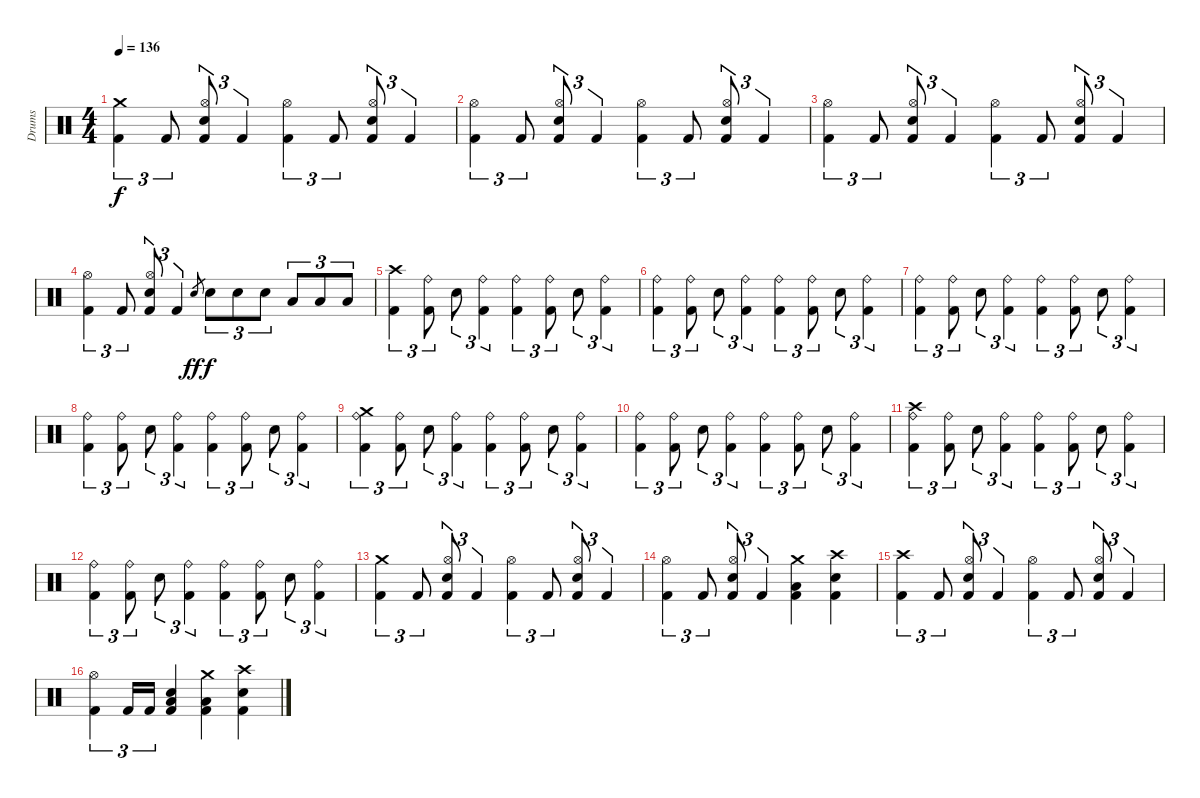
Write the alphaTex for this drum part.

\track ("Drums" "Drums") {instrument percussion}
\staff {score}
\articulation defaults
\ts (4 4)
\tempo 136
\clef neutral
\ks c
("Crash medium (hit)" "Kick (hit) 2").4{tu (3 2) dy f} "Kick (hit) 2".8{tu (3 2)} ("Hi-Hat (open)" "Electric Snare (hit)" "Kick (hit) 2").8{tu (3 2)} "Kick (hit) 2".4{tu (3 2)} ("Hi-Hat (open)" "Kick (hit) 2").4{tu (3 2)} "Kick (hit) 2".8{tu (3 2)} ("Hi-Hat (open)" "Electric Snare (hit)" "Kick (hit) 2").8{tu (3 2)} "Kick (hit) 2".4{tu (3 2)} |
("Hi-Hat (open)" "Kick (hit) 2").4{tu (3 2)} "Kick (hit) 2".8{tu (3 2)} ("Hi-Hat (open)" "Electric Snare (hit)" "Kick (hit) 2").8{tu (3 2)} "Kick (hit) 2".4{tu (3 2)} ("Hi-Hat (open)" "Kick (hit) 2").4{tu (3 2)} "Kick (hit) 2".8{tu (3 2)} ("Hi-Hat (open)" "Electric Snare (hit)" "Kick (hit) 2").8{tu (3 2)} "Kick (hit) 2".4{tu (3 2)} |
("Hi-Hat (open)" "Kick (hit) 2").4{tu (3 2)} "Kick (hit) 2".8{tu (3 2)} ("Hi-Hat (open)" "Electric Snare (hit)" "Kick (hit) 2").8{tu (3 2)} "Kick (hit) 2".4{tu (3 2)} ("Hi-Hat (open)" "Kick (hit) 2").4{tu (3 2)} "Kick (hit) 2".8{tu (3 2)} ("Hi-Hat (open)" "Electric Snare (hit)" "Kick (hit) 2").8{tu (3 2)} "Kick (hit) 2".4{tu (3 2)} |
("Hi-Hat (open)" "Kick (hit) 2").4{tu (3 2)} "Kick (hit) 2".8{tu (3 2)} ("Hi-Hat (open)" "Electric Snare (hit)" "Kick (hit) 2").8{tu (3 2)} "Kick (hit) 2".4{tu (3 2)} "Electric Snare (hit)".8{gr dy ff} "Electric Snare (hit)".8{tu (3 2) dy f} "Electric Snare (hit)".8{tu (3 2)} "Electric Snare (hit)".8{tu (3 2)} "Low Tom (hit)".8{tu (3 2)} "Low Tom (hit)".8{tu (3 2)} "Low Tom (hit)".8{tu (3 2)} |
("Crash high (hit)" "Kick (hit) 2").4{tu (3 2)} ("Ride (bell)" "Kick (hit) 2").8{tu (3 2)} "Electric Snare (hit)".8{tu (3 2)} ("Ride (bell)" "Kick (hit) 2").4{tu (3 2)} ("Ride (bell)" "Kick (hit) 2").4{tu (3 2)} ("Ride (bell)" "Kick (hit) 2").8{tu (3 2)} "Electric Snare (hit)".8{tu (3 2)} ("Ride (bell)" "Kick (hit) 2").4{tu (3 2)} |
("Ride (bell)" "Kick (hit) 2").4{tu (3 2)} ("Ride (bell)" "Kick (hit) 2").8{tu (3 2)} "Electric Snare (hit)".8{tu (3 2)} ("Ride (bell)" "Kick (hit) 2").4{tu (3 2)} ("Ride (bell)" "Kick (hit) 2").4{tu (3 2)} ("Ride (bell)" "Kick (hit) 2").8{tu (3 2)} "Electric Snare (hit)".8{tu (3 2)} ("Ride (bell)" "Kick (hit) 2").4{tu (3 2)} |
("Ride (bell)" "Kick (hit) 2").4{tu (3 2)} ("Ride (bell)" "Kick (hit) 2").8{tu (3 2)} "Electric Snare (hit)".8{tu (3 2)} ("Ride (bell)" "Kick (hit) 2").4{tu (3 2)} ("Ride (bell)" "Kick (hit) 2").4{tu (3 2)} ("Ride (bell)" "Kick (hit) 2").8{tu (3 2)} "Electric Snare (hit)".8{tu (3 2)} ("Ride (bell)" "Kick (hit) 2").4{tu (3 2)} |
("Ride (bell)" "Kick (hit) 2").4{tu (3 2)} ("Ride (bell)" "Kick (hit) 2").8{tu (3 2)} "Electric Snare (hit)".8{tu (3 2)} ("Ride (bell)" "Kick (hit) 2").4{tu (3 2)} ("Ride (bell)" "Kick (hit) 2").4{tu (3 2)} ("Ride (bell)" "Kick (hit) 2").8{tu (3 2)} "Electric Snare (hit)".8{tu (3 2)} ("Ride (bell)" "Kick (hit) 2").4{tu (3 2)} |
("Crash medium (hit)" "Ride (bell)" "Kick (hit) 2").4{tu (3 2)} ("Ride (bell)" "Kick (hit) 2").8{tu (3 2)} "Electric Snare (hit)".8{tu (3 2)} ("Ride (bell)" "Kick (hit) 2").4{tu (3 2)} ("Ride (bell)" "Kick (hit) 2").4{tu (3 2)} ("Ride (bell)" "Kick (hit) 2").8{tu (3 2)} "Electric Snare (hit)".8{tu (3 2)} ("Ride (bell)" "Kick (hit) 2").4{tu (3 2)} |
("Ride (bell)" "Kick (hit) 2").4{tu (3 2)} ("Ride (bell)" "Kick (hit) 2").8{tu (3 2)} "Electric Snare (hit)".8{tu (3 2)} ("Ride (bell)" "Kick (hit) 2").4{tu (3 2)} ("Ride (bell)" "Kick (hit) 2").4{tu (3 2)} ("Ride (bell)" "Kick (hit) 2").8{tu (3 2)} "Electric Snare (hit)".8{tu (3 2)} ("Ride (bell)" "Kick (hit) 2").4{tu (3 2)} |
("Crash high (hit)" "Ride (bell)" "Kick (hit) 2").4{tu (3 2)} ("Ride (bell)" "Kick (hit) 2").8{tu (3 2)} "Electric Snare (hit)".8{tu (3 2)} ("Ride (bell)" "Kick (hit) 2").4{tu (3 2)} ("Ride (bell)" "Kick (hit) 2").4{tu (3 2)} ("Ride (bell)" "Kick (hit) 2").8{tu (3 2)} "Electric Snare (hit)".8{tu (3 2)} ("Ride (bell)" "Kick (hit) 2").4{tu (3 2)} |
("Ride (bell)" "Kick (hit) 2").4{tu (3 2)} ("Ride (bell)" "Kick (hit) 2").8{tu (3 2)} "Electric Snare (hit)".8{tu (3 2)} ("Ride (bell)" "Kick (hit) 2").4{tu (3 2)} ("Ride (bell)" "Kick (hit) 2").4{tu (3 2)} ("Ride (bell)" "Kick (hit) 2").8{tu (3 2)} "Electric Snare (hit)".8{tu (3 2)} ("Ride (bell)" "Kick (hit) 2").4{tu (3 2)} |
("Crash medium (hit)" "Kick (hit) 2").4{tu (3 2)} "Kick (hit) 2".8{tu (3 2)} ("Hi-Hat (open)" "Electric Snare (hit)" "Kick (hit) 2").8{tu (3 2)} "Kick (hit) 2".4{tu (3 2)} ("Hi-Hat (open)" "Kick (hit) 2").4{tu (3 2)} "Kick (hit) 2".8{tu (3 2)} ("Hi-Hat (open)" "Electric Snare (hit)" "Kick (hit) 2").8{tu (3 2)} "Kick (hit) 2".4{tu (3 2)} |
("Hi-Hat (open)" "Kick (hit) 2").4{tu (3 2)} "Kick (hit) 2".8{tu (3 2)} ("Hi-Hat (open)" "Electric Snare (hit)" "Kick (hit) 2").8{tu (3 2)} "Kick (hit) 2".4{tu (3 2)} ("Crash medium (hit)" "Low Floor Tom (hit)" "Kick (hit) 2").4 ("Crash high (hit)" "Electric Snare (hit)" "Kick (hit) 2").4 |
("Crash high (hit)" "Kick (hit) 2").4{tu (3 2)} "Kick (hit) 2".8{tu (3 2)} ("Hi-Hat (open)" "Electric Snare (hit)" "Kick (hit) 2").8{tu (3 2)} "Kick (hit) 2".4{tu (3 2)} ("Hi-Hat (open)" "Kick (hit) 2").4{tu (3 2)} "Kick (hit) 2".8{tu (3 2)} ("Hi-Hat (open)" "Electric Snare (hit)" "Kick (hit) 2").8{tu (3 2)} "Kick (hit) 2".4{tu (3 2)} |
("Hi-Hat (open)" "Kick (hit) 2").4{tu (3 2)} "Kick (hit) 2".16{tu (3 2)} "Kick (hit) 2".16{tu (3 2)} ("Low Floor Tom (hit)" "Electric Snare (hit)" "Kick (hit) 2").4 ("Crash medium (hit)" "Low Floor Tom (hit)" "Kick (hit) 2").4 ("Crash high (hit)" "Electric Snare (hit)" "Kick (hit) 2").4
